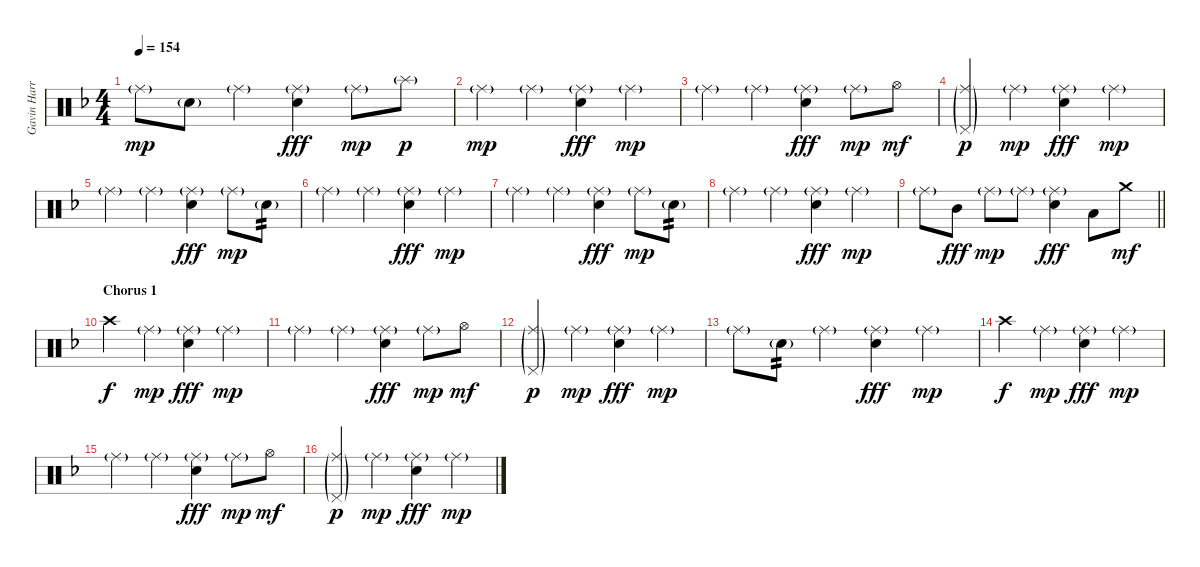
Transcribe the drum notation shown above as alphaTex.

\track ("Gavin Harrison Drums" "Gavin Harr") {instrument percussion}
\staff {score}
\articulation defaults
\ts (4 4)
\tempo 154
\clef neutral
\ks dminor "Ride (middle)"{g}.8{dy mp} "Electric Snare (hit)"{g}.8 "Ride (middle)"{g}.4
("Ride (middle)"{g} "Electric Snare (hit)").4{dy fff} "Ride (middle)"{g}.8{dy mp} "Splash (hit)"{g}.8{dy p} |
"Ride (middle)"{g}.4{dy mp} "Ride (middle)"{g}.4 ("Ride (middle)"{g} "Electric Snare (hit)").4{dy fff} "Ride (middle)"{g}.4{dy mp} |
"Ride (middle)"{g}.4 "Ride (middle)"{g}.4 ("Ride (middle)"{g} "Electric Snare (hit)").4{dy fff} "Ride (middle)"{g}.8{dy mp} "Hi-Hat (open)".8{dy mf} |
("Ride (middle)"{g} "Pedal Hi-Hat (hit)"{g}).4{dy p} "Ride (middle)"{g}.4{dy mp} ("Ride (middle)"{g} "Electric Snare (hit)").4{dy fff} "Ride (middle)"{g}.4{dy mp} |
"Ride (middle)"{g}.4 "Ride (middle)"{g}.4 ("Ride (middle)"{g} "Electric Snare (hit)").4{dy fff} "Ride (middle)"{g}.8{dy mp} "Electric Snare (hit)"{g}.8{tp 2} |
"Ride (middle)"{g}.4 "Ride (middle)"{g}.4 ("Ride (middle)"{g} "Electric Snare (hit)").4{dy fff} "Ride (middle)"{g}.4{dy mp} |
"Ride (middle)"{g}.4 "Ride (middle)"{g}.4 ("Ride (middle)"{g} "Electric Snare (hit)").4{dy fff} "Ride (middle)"{g}.8{dy mp} "Electric Snare (hit)"{g}.8{tp 2} |
"Ride (middle)"{g}.4 "Ride (middle)"{g}.4 ("Ride (middle)"{g} "Electric Snare (hit)").4{dy fff} "Ride (middle)"{g}.4{dy mp} |
\barLineRight lightlight "Ride (middle)"{g}.8 "Mid Tom (hit)".8{dy fff} "Ride (middle)"{g}.8{dy mp} "Ride (middle)"{g}.8
("Ride (middle)"{g} "Electric Snare (hit)").4{dy fff} "Low Tom (hit)".8 "Crash medium (hit)".8{dy mf} |
\section ("" "Chorus 1")
"Crash high (hit)".4{dy f} "Ride (middle)"{g}.4{dy mp} ("Ride (middle)"{g} "Electric Snare (hit)").4{dy fff} "Ride (middle)"{g}.4{dy mp} |
"Ride (middle)"{g}.4 "Ride (middle)"{g}.4 ("Ride (middle)"{g} "Electric Snare (hit)").4{dy fff} "Ride (middle)"{g}.8{dy mp} "Hi-Hat (open)".8{dy mf} |
("Ride (middle)"{g} "Pedal Hi-Hat (hit)"{g}).4{dy p} "Ride (middle)"{g}.4{dy mp} ("Ride (middle)"{g} "Electric Snare (hit)").4{dy fff} "Ride (middle)"{g}.4{dy mp} |
"Ride (middle)"{g}.8 "Electric Snare (hit)"{g}.8{tp 2} "Ride (middle)"{g}.4 ("Ride (middle)"{g} "Electric Snare (hit)").4{dy fff} "Ride (middle)"{g}.4{dy mp} |
"Crash high (hit)".4{dy f} "Ride (middle)"{g}.4{dy mp} ("Ride (middle)"{g} "Electric Snare (hit)").4{dy fff} "Ride (middle)"{g}.4{dy mp} |
"Ride (middle)"{g}.4 "Ride (middle)"{g}.4 ("Ride (middle)"{g} "Electric Snare (hit)").4{dy fff} "Ride (middle)"{g}.8{dy mp} "Hi-Hat (open)".8{dy mf} |
("Ride (middle)"{g} "Pedal Hi-Hat (hit)"{g}).4{dy p} "Ride (middle)"{g}.4{dy mp} ("Ride (middle)"{g} "Electric Snare (hit)").4{dy fff} "Ride (middle)"{g}.4{dy mp}
